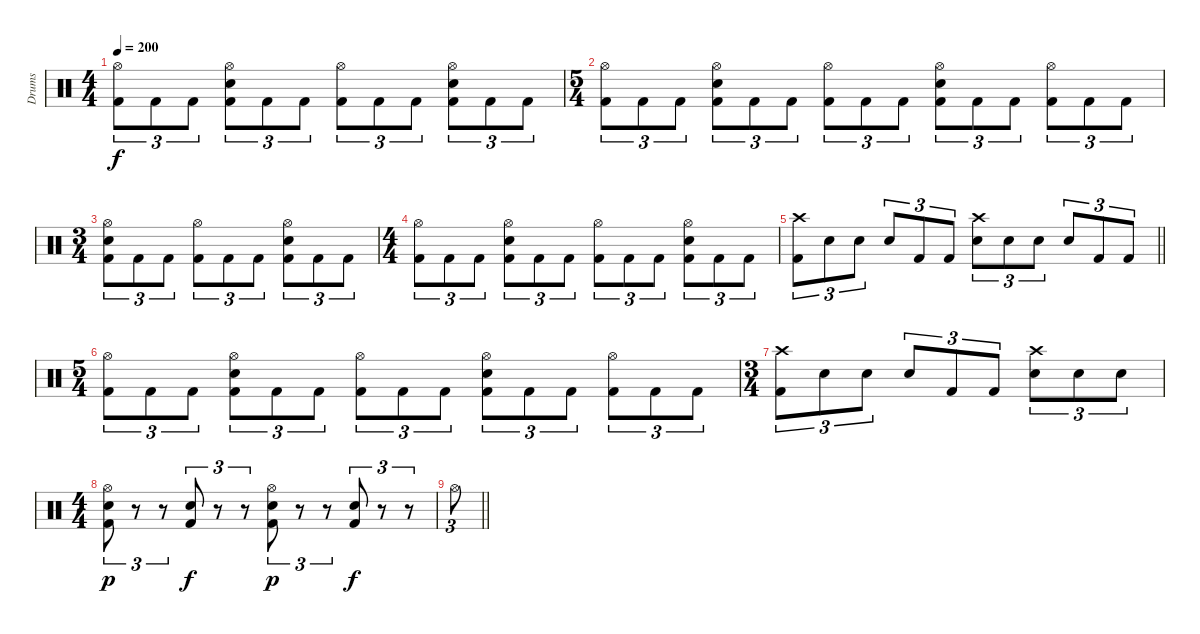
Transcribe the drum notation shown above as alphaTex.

\track ("Drums" "Drums") {instrument percussion}
\staff {score}
\articulation defaults
\ts (4 4)
\tempo 200
\clef neutral
\ks c
("Hi-Hat (open)" "Kick (hit) 2").8{tu (3 2) dy f} "Kick (hit) 2".8{tu (3 2)} "Kick (hit) 2".8{tu (3 2)} ("Hi-Hat (open)" "Electric Snare (hit)" "Kick (hit) 2").8{tu (3 2)} "Kick (hit) 2".8{tu (3 2)} "Kick (hit) 2".8{tu (3 2)} ("Hi-Hat (open)" "Kick (hit) 2").8{tu (3 2)} "Kick (hit) 2".8{tu (3 2)} "Kick (hit) 2".8{tu (3 2)} ("Hi-Hat (open)" "Electric Snare (hit)" "Kick (hit) 2").8{tu (3 2)} "Kick (hit) 2".8{tu (3 2)} "Kick (hit) 2".8{tu (3 2)} |
\ts (5 4)
("Hi-Hat (open)" "Kick (hit) 2").8{tu (3 2)} "Kick (hit) 2".8{tu (3 2)} "Kick (hit) 2".8{tu (3 2)} ("Hi-Hat (open)" "Electric Snare (hit)" "Kick (hit) 2").8{tu (3 2)} "Kick (hit) 2".8{tu (3 2)} "Kick (hit) 2".8{tu (3 2)} ("Hi-Hat (open)" "Kick (hit) 2").8{tu (3 2)} "Kick (hit) 2".8{tu (3 2)} "Kick (hit) 2".8{tu (3 2)} ("Hi-Hat (open)" "Electric Snare (hit)" "Kick (hit) 2").8{tu (3 2)} "Kick (hit) 2".8{tu (3 2)} "Kick (hit) 2".8{tu (3 2)} ("Hi-Hat (open)" "Kick (hit) 2").8{tu (3 2)} "Kick (hit) 2".8{tu (3 2)} "Kick (hit) 2".8{tu (3 2)} |
\ts (3 4)
("Hi-Hat (open)" "Electric Snare (hit)" "Kick (hit) 2").8{tu (3 2)} "Kick (hit) 2".8{tu (3 2)} "Kick (hit) 2".8{tu (3 2)} ("Hi-Hat (open)" "Kick (hit) 2").8{tu (3 2)} "Kick (hit) 2".8{tu (3 2)} "Kick (hit) 2".8{tu (3 2)} ("Hi-Hat (open)" "Electric Snare (hit)" "Kick (hit) 2").8{tu (3 2)} "Kick (hit) 2".8{tu (3 2)} "Kick (hit) 2".8{tu (3 2)} |
\ts (4 4)
("Hi-Hat (open)" "Kick (hit) 2").8{tu (3 2)} "Kick (hit) 2".8{tu (3 2)} "Kick (hit) 2".8{tu (3 2)} ("Hi-Hat (open)" "Electric Snare (hit)" "Kick (hit) 2").8{tu (3 2)} "Kick (hit) 2".8{tu (3 2)} "Kick (hit) 2".8{tu (3 2)} ("Hi-Hat (open)" "Kick (hit) 2").8{tu (3 2)} "Kick (hit) 2".8{tu (3 2)} "Kick (hit) 2".8{tu (3 2)} ("Hi-Hat (open)" "Electric Snare (hit)" "Kick (hit) 2").8{tu (3 2)} "Kick (hit) 2".8{tu (3 2)} "Kick (hit) 2".8{tu (3 2)} |
\barLineRight lightlight
("Crash high (hit)" "Kick (hit) 2").8{tu (3 2)} "Electric Snare (hit)".8{tu (3 2)} "Electric Snare (hit)".8{tu (3 2)} "Electric Snare (hit)".8{tu (3 2)} "Kick (hit) 2".8{tu (3 2)} "Kick (hit) 2".8{tu (3 2)} ("Crash high (hit)" "Electric Snare (hit)").8{tu (3 2)} "Electric Snare (hit)".8{tu (3 2)} "Electric Snare (hit)".8{tu (3 2)} "Electric Snare (hit)".8{tu (3 2)} "Kick (hit) 2".8{tu (3 2)} "Kick (hit) 2".8{tu (3 2)} |
\ts (5 4)
("Hi-Hat (open)" "Kick (hit) 2").8{tu (3 2)} "Kick (hit) 2".8{tu (3 2)} "Kick (hit) 2".8{tu (3 2)} ("Hi-Hat (open)" "Electric Snare (hit)" "Kick (hit) 2").8{tu (3 2)} "Kick (hit) 2".8{tu (3 2)} "Kick (hit) 2".8{tu (3 2)} ("Hi-Hat (open)" "Kick (hit) 2").8{tu (3 2)} "Kick (hit) 2".8{tu (3 2)} "Kick (hit) 2".8{tu (3 2)} ("Hi-Hat (open)" "Electric Snare (hit)" "Kick (hit) 2").8{tu (3 2)} "Kick (hit) 2".8{tu (3 2)} "Kick (hit) 2".8{tu (3 2)} ("Hi-Hat (open)" "Kick (hit) 2").8{tu (3 2)} "Kick (hit) 2".8{tu (3 2)} "Kick (hit) 2".8{tu (3 2)} |
\ts (3 4)
("Crash high (hit)" "Kick (hit) 2").8{tu (3 2)} "Electric Snare (hit)".8{tu (3 2)} "Electric Snare (hit)".8{tu (3 2)} "Electric Snare (hit)".8{tu (3 2)} "Kick (hit) 2".8{tu (3 2)} "Kick (hit) 2".8{tu (3 2)} ("Crash high (hit)" "Electric Snare (hit)").8{tu (3 2)} "Electric Snare (hit)".8{tu (3 2)} "Electric Snare (hit)".8{tu (3 2)} |
\ts (4 4)
("Hi-Hat (open)" "Electric Snare (hit)" "Kick (hit) 2").8{tu (3 2) dy p} r.8{tu (3 2)} r.8{tu (3 2)} ("Electric Snare (hit)" "Kick (hit) 2").8{tu (3 2) dy f} r.8{tu (3 2)} r.8{tu (3 2)} ("Hi-Hat (open)" "Electric Snare (hit)" "Kick (hit) 2").8{tu (3 2) dy p} r.8{tu (3 2)} r.8{tu (3 2)} ("Electric Snare (hit)" "Kick (hit) 2").8{tu (3 2) dy f} r.8{tu (3 2)} r.8{tu (3 2)} |
\barLineRight lightlight "Hi-Hat (open)".8{tu (3 2)}
